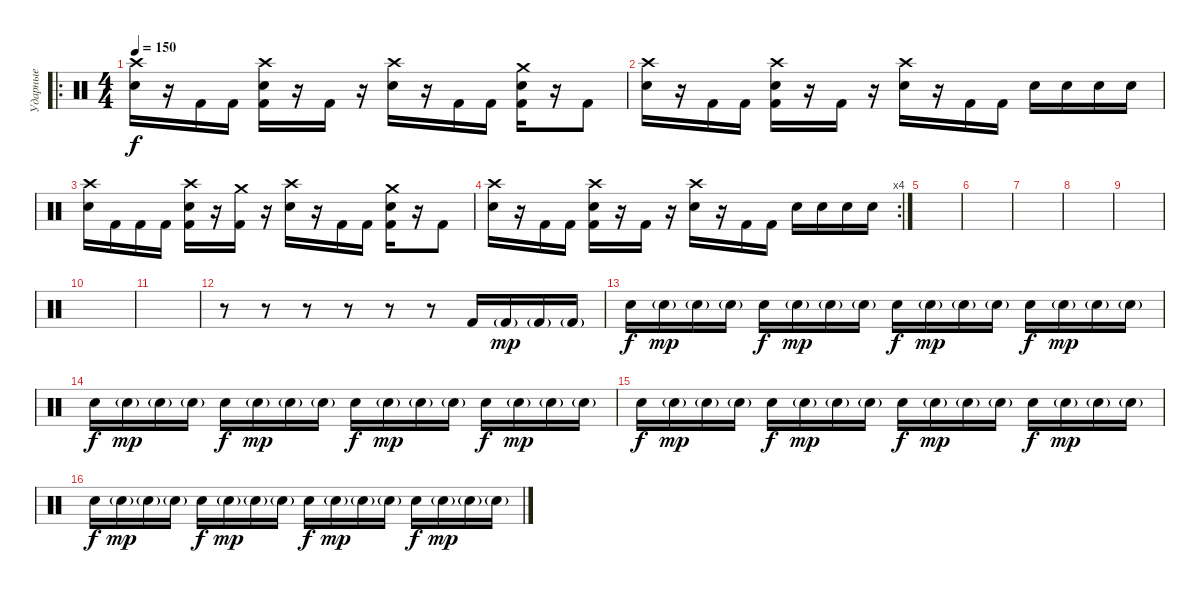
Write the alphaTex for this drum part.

\track ("Ударные" "Ударные") {instrument percussion}
\staff {score}
\articulation defaults
\ro
\ts (4 4)
\tempo 150
\clef neutral
\ks c
("Crash high (hit)" "Electric Snare (hit)").16{dy f} r.16 "Kick (hit) 2".16 "Kick (hit) 2".16 ("Crash high (hit)" "Electric Snare (hit)" "Kick (hit) 2").16 r.16 "Kick (hit) 2".16 r.16 ("Crash high (hit)" "Electric Snare (hit)").16 r.16 "Kick (hit) 2".16 "Kick (hit) 2".16 ("Crash medium (hit)" "Electric Snare (hit)" "Kick (hit) 2").16 r.16 "Kick (hit) 2".8 |
("Crash high (hit)" "Electric Snare (hit)").16 r.16 "Kick (hit) 2".16 "Kick (hit) 2".16 ("Crash high (hit)" "Electric Snare (hit)" "Kick (hit) 2").16 r.16 "Kick (hit) 2".16 r.16 ("Crash high (hit)" "Electric Snare (hit)").16 r.16 "Kick (hit) 2".16 "Kick (hit) 2".16 "Electric Snare (hit)".16 "Electric Snare (hit)".16 "Electric Snare (hit)".16 "Electric Snare (hit)".16 |
("Crash high (hit)" "Electric Snare (hit)").16 "Kick (hit) 2".16 "Kick (hit) 2".16 "Kick (hit) 2".16 ("Crash high (hit)" "Electric Snare (hit)" "Kick (hit) 2").16 r.16 ("Crash medium (hit)" "Kick (hit) 2").16 r.16 ("Crash high (hit)" "Electric Snare (hit)").16 r.16 "Kick (hit) 2".16 "Kick (hit) 2".16 ("Crash medium (hit)" "Electric Snare (hit)" "Kick (hit) 2").16 r.16 "Kick (hit) 2".8 |
\rc 4
("Crash high (hit)" "Electric Snare (hit)").16 r.16 "Kick (hit) 2".16 "Kick (hit) 2".16 ("Crash high (hit)" "Electric Snare (hit)" "Kick (hit) 2").16 r.16 "Kick (hit) 2".16 r.16 ("Crash high (hit)" "Electric Snare (hit)").16 r.16 "Kick (hit) 2".16 "Kick (hit) 2".16 "Electric Snare (hit)".16 "Electric Snare (hit)".16 "Electric Snare (hit)".16 "Electric Snare (hit)".16 |
|
|
|
|
|
|
|
r.8 r.8 r.8 r.8 r.8 r.8 "Kick (hit) 2".16 "Kick (hit) 2"{g}.16{dy mp} "Kick (hit) 2"{g}.16 "Kick (hit) 2"{g}.16 |
"Electric Snare (hit)".16{dy f} "Electric Snare (hit)"{g}.16{dy mp} "Electric Snare (hit)"{g}.16 "Electric Snare (hit)"{g}.16 "Electric Snare (hit)".16{dy f} "Electric Snare (hit)"{g}.16{dy mp} "Electric Snare (hit)"{g}.16 "Electric Snare (hit)"{g}.16 "Electric Snare (hit)".16{dy f} "Electric Snare (hit)"{g}.16{dy mp} "Electric Snare (hit)"{g}.16 "Electric Snare (hit)"{g}.16 "Electric Snare (hit)".16{dy f} "Electric Snare (hit)"{g}.16{dy mp} "Electric Snare (hit)"{g}.16 "Electric Snare (hit)"{g}.16 |
"Electric Snare (hit)".16{dy f} "Electric Snare (hit)"{g}.16{dy mp} "Electric Snare (hit)"{g}.16 "Electric Snare (hit)"{g}.16 "Electric Snare (hit)".16{dy f} "Electric Snare (hit)"{g}.16{dy mp} "Electric Snare (hit)"{g}.16 "Electric Snare (hit)"{g}.16 "Electric Snare (hit)".16{dy f} "Electric Snare (hit)"{g}.16{dy mp} "Electric Snare (hit)"{g}.16 "Electric Snare (hit)"{g}.16 "Electric Snare (hit)".16{dy f} "Electric Snare (hit)"{g}.16{dy mp} "Electric Snare (hit)"{g}.16 "Electric Snare (hit)"{g}.16 |
"Electric Snare (hit)".16{dy f} "Electric Snare (hit)"{g}.16{dy mp} "Electric Snare (hit)"{g}.16 "Electric Snare (hit)"{g}.16 "Electric Snare (hit)".16{dy f} "Electric Snare (hit)"{g}.16{dy mp} "Electric Snare (hit)"{g}.16 "Electric Snare (hit)"{g}.16 "Electric Snare (hit)".16{dy f} "Electric Snare (hit)"{g}.16{dy mp} "Electric Snare (hit)"{g}.16 "Electric Snare (hit)"{g}.16 "Electric Snare (hit)".16{dy f} "Electric Snare (hit)"{g}.16{dy mp} "Electric Snare (hit)"{g}.16 "Electric Snare (hit)"{g}.16 |
"Electric Snare (hit)".16{dy f} "Electric Snare (hit)"{g}.16{dy mp} "Electric Snare (hit)"{g}.16 "Electric Snare (hit)"{g}.16 "Electric Snare (hit)".16{dy f} "Electric Snare (hit)"{g}.16{dy mp} "Electric Snare (hit)"{g}.16 "Electric Snare (hit)"{g}.16 "Electric Snare (hit)".16{dy f} "Electric Snare (hit)"{g}.16{dy mp} "Electric Snare (hit)"{g}.16 "Electric Snare (hit)"{g}.16 "Electric Snare (hit)".16{dy f} "Electric Snare (hit)"{g}.16{dy mp} "Electric Snare (hit)"{g}.16 "Electric Snare (hit)"{g}.16
